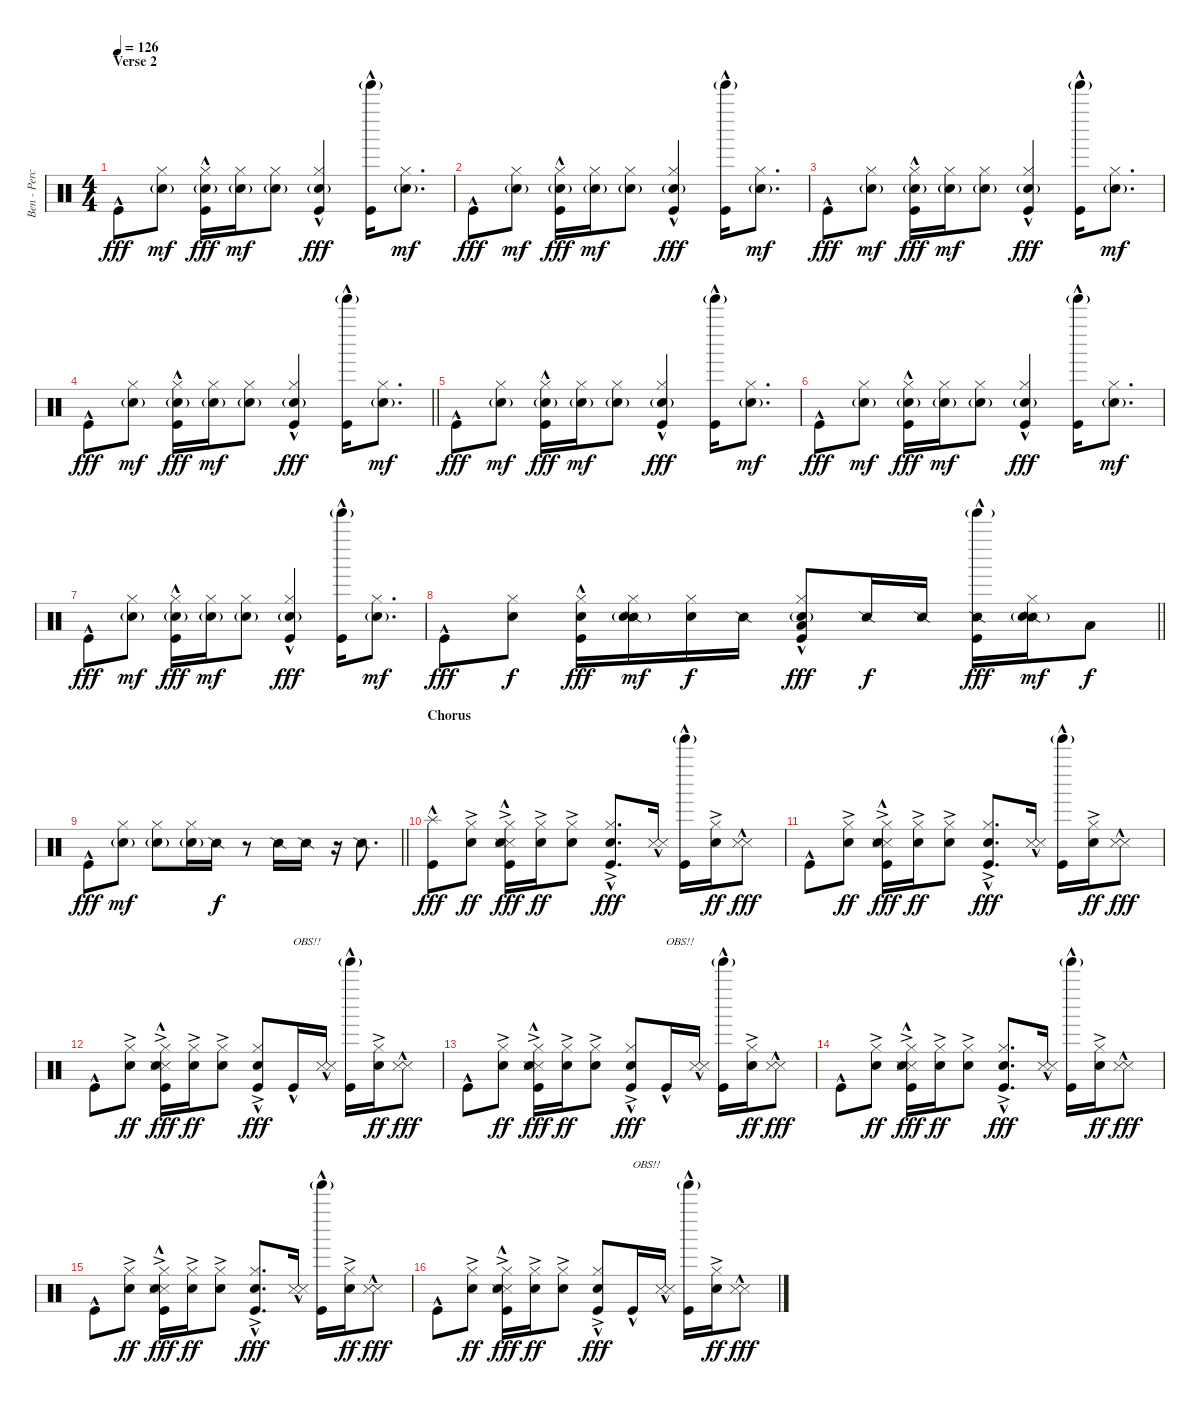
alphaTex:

\track ("Ben - Percussion" "Ben - Perc") {instrument percussion}
\staff {score}
\articulation defaults
\ts (4 4)
\section ("" "Verse 2")
\tempo 126
\clef neutral
\ks c "Kick (hit)"{hac}.8{dy fff}
("Hi-Hat (closed)" "Snare (hit) 2"{g}).8{dy mf} ("Hi-Hat (closed)" "Snare (hit) 2"{g} "Kick (hit)"{hac}).16{dy fff} ("Hi-Hat (closed)" "Snare (hit) 2"{g}).16{dy mf} ("Hi-Hat (closed)" "Snare (hit) 2"{g}).8 ("Hi-Hat (closed)" "Snare (hit) 2"{g} "Kick (hit)"{hac}).4{dy fff} ("Tinkle Bell (hit)"{g} "Kick (hit)"{hac}).16 ("Hi-Hat (closed)" "Snare (hit) 2"{g}).8{d dy mf} |
"Kick (hit)"{hac}.8{dy fff} ("Hi-Hat (closed)" "Snare (hit) 2"{g}).8{dy mf} ("Hi-Hat (closed)" "Snare (hit) 2"{g} "Kick (hit)"{hac}).16{dy fff} ("Hi-Hat (closed)" "Snare (hit) 2"{g}).16{dy mf} ("Hi-Hat (closed)" "Snare (hit) 2"{g}).8 ("Hi-Hat (closed)" "Snare (hit) 2"{g} "Kick (hit)"{hac}).4{dy fff} ("Tinkle Bell (hit)"{g} "Kick (hit)"{hac}).16 ("Hi-Hat (closed)" "Snare (hit) 2"{g}).8{d dy mf} |
"Kick (hit)"{hac}.8{dy fff} ("Hi-Hat (closed)" "Snare (hit) 2"{g}).8{dy mf} ("Hi-Hat (closed)" "Snare (hit) 2"{g} "Kick (hit)"{hac}).16{dy fff} ("Hi-Hat (closed)" "Snare (hit) 2"{g}).16{dy mf} ("Hi-Hat (closed)" "Snare (hit) 2"{g}).8 ("Hi-Hat (closed)" "Snare (hit) 2"{g} "Kick (hit)"{hac}).4{dy fff} ("Tinkle Bell (hit)"{g} "Kick (hit)"{hac}).16 ("Hi-Hat (closed)" "Snare (hit) 2"{g}).8{d dy mf} |
\barLineRight lightlight "Kick (hit)"{hac}.8{dy fff}
("Hi-Hat (closed)" "Snare (hit) 2"{g}).8{dy mf} ("Hi-Hat (closed)" "Snare (hit) 2"{g} "Kick (hit)"{hac}).16{dy fff} ("Hi-Hat (closed)" "Snare (hit) 2"{g}).16{dy mf} ("Hi-Hat (closed)" "Snare (hit) 2"{g}).8 ("Hi-Hat (closed)" "Snare (hit) 2"{g} "Kick (hit)"{hac}).4{dy fff} ("Tinkle Bell (hit)"{g} "Kick (hit)"{hac}).16 ("Hi-Hat (closed)" "Snare (hit) 2"{g}).8{d dy mf} |
"Kick (hit)"{hac}.8{dy fff} ("Hi-Hat (closed)" "Snare (hit) 2"{g}).8{dy mf} ("Hi-Hat (closed)" "Snare (hit) 2"{g} "Kick (hit)"{hac}).16{dy fff} ("Hi-Hat (closed)" "Snare (hit) 2"{g}).16{dy mf} ("Hi-Hat (closed)" "Snare (hit) 2"{g}).8 ("Hi-Hat (closed)" "Snare (hit) 2"{g} "Kick (hit)"{hac}).4{dy fff} ("Tinkle Bell (hit)"{g} "Kick (hit)"{hac}).16 ("Hi-Hat (closed)" "Snare (hit) 2"{g}).8{d dy mf} |
"Kick (hit)"{hac}.8{dy fff} ("Hi-Hat (closed)" "Snare (hit) 2"{g}).8{dy mf} ("Hi-Hat (closed)" "Snare (hit) 2"{g} "Kick (hit)"{hac}).16{dy fff} ("Hi-Hat (closed)" "Snare (hit) 2"{g}).16{dy mf} ("Hi-Hat (closed)" "Snare (hit) 2"{g}).8 ("Hi-Hat (closed)" "Snare (hit) 2"{g} "Kick (hit)"{hac}).4{dy fff} ("Tinkle Bell (hit)"{g} "Kick (hit)"{hac}).16 ("Hi-Hat (closed)" "Snare (hit) 2"{g}).8{d dy mf} |
"Kick (hit)"{hac}.8{dy fff} ("Hi-Hat (closed)" "Snare (hit) 2"{g}).8{dy mf} ("Hi-Hat (closed)" "Snare (hit) 2"{g} "Kick (hit)"{hac}).16{dy fff} ("Hi-Hat (closed)" "Snare (hit) 2"{g}).16{dy mf} ("Hi-Hat (closed)" "Snare (hit) 2"{g}).8 ("Hi-Hat (closed)" "Snare (hit) 2"{g} "Kick (hit)"{hac}).4{dy fff} ("Tinkle Bell (hit)"{g} "Kick (hit)"{hac}).16 ("Hi-Hat (closed)" "Snare (hit) 2"{g}).8{d dy mf} |
\barLineRight lightlight "Kick (hit)"{hac}.8{dy fff}
("Hi-Hat (closed)" "Snare (hit) 2").8{dy f} ("Hi-Hat (closed)" "Snare (hit) 2" "Kick (hit)"{hac}).16{dy fff} ("Hi-Hat (closed)" "Snare (side stick) 2" "Snare (hit) 2"{g}).16{dy mf} ("Hi-Hat (closed)" "Snare (hit) 2").16{dy f} "Snare (side stick) 2".16 ("Hi-Hat (closed)" "Low Tom (hit)" "Snare (hit) 2"{g} "Kick (hit)"{hac}).8{dy fff} "Snare (side stick) 2".16{dy f} "Snare (side stick) 2".16 ("Tinkle Bell (hit)"{g} "Snare (side stick) 2" "Kick (hit)"{hac}).16{dy fff} ("Hi-Hat (closed)" "Snare (side stick) 2" "Snare (hit) 2"{g}).16{dy mf} "Low Tom (hit)".8{dy f} |
\barLineRight lightlight "Kick (hit)"{hac}.8{dy fff}
("Hi-Hat (closed)" "Snare (hit) 2"{g}).8{dy mf} ("Hi-Hat (closed)" "Snare (hit) 2"{g}).8 ("Hi-Hat (closed)" "Snare (hit) 2"{g}).16 "Snare (side stick) 2".16{dy f} r.8 "Snare (side stick) 2".16 "Snare (side stick) 2".16 r.16 "Snare (side stick) 2".8{d} |
\section ("" "Chorus")
("Splash (hit)" "Kick (hit)"{hac}).8{dy fff} ("Hi-Hat (closed)"{ac} "Snare (hit) 2").8{dy ff} ("Hi-Hat (closed)"{ac} "Metronome (hit)"{hac} "Snare (side stick) 3"{hac} "Snare (hit) 2" "Kick (hit)"{hac}).16{dy fff} ("Hi-Hat (closed)"{ac} "Snare (hit) 2").16{dy ff} ("Hi-Hat (closed)"{ac} "Snare (hit) 2").8 ("Hi-Hat (closed)"{ac} "Snare (hit) 2" "Kick (hit)"{hac}).8{d dy fff} ("Metronome (hit)"{hac} "Snare (side stick) 3"{hac}).16 ("Tinkle Bell (hit)"{g} "Kick (hit)"{hac}).16 ("Hi-Hat (closed)"{ac} "Snare (hit) 2").16{dy ff} ("Metronome (hit)"{hac} "Snare (side stick) 3"{hac}).8{dy fff} |
"Kick (hit)"{hac}.8 ("Hi-Hat (closed)"{ac} "Snare (hit) 2").8{dy ff} ("Hi-Hat (closed)"{ac} "Metronome (hit)"{hac} "Snare (side stick) 3"{hac} "Snare (hit) 2" "Kick (hit)"{hac}).16{dy fff} ("Hi-Hat (closed)"{ac} "Snare (hit) 2").16{dy ff} ("Hi-Hat (closed)"{ac} "Snare (hit) 2").8 ("Hi-Hat (closed)"{ac} "Snare (hit) 2" "Kick (hit)"{hac}).8{d dy fff} ("Metronome (hit)"{hac} "Snare (side stick) 3"{hac}).16 ("Tinkle Bell (hit)"{g} "Kick (hit)"{hac}).16 ("Hi-Hat (closed)"{ac} "Snare (hit) 2").16{dy ff} ("Metronome (hit)"{hac} "Snare (side stick) 3"{hac}).8{dy fff} |
"Kick (hit)"{hac}.8 ("Hi-Hat (closed)"{ac} "Snare (hit) 2").8{dy ff} ("Hi-Hat (closed)"{ac} "Metronome (hit)"{hac} "Snare (side stick) 3"{hac} "Snare (hit) 2" "Kick (hit)"{hac}).16{dy fff} ("Hi-Hat (closed)"{ac} "Snare (hit) 2").16{dy ff} ("Hi-Hat (closed)"{ac} "Snare (hit) 2").8 ("Hi-Hat (closed)"{ac} "Snare (hit) 2" "Kick (hit)"{hac}).8{dy fff} "Kick (hit)"{hac}.16{txt "OBS!!"} ("Metronome (hit)"{hac} "Snare (side stick) 3"{hac}).16 ("Tinkle Bell (hit)"{g} "Kick (hit)"{hac}).16 ("Hi-Hat (closed)"{ac} "Snare (hit) 2").16{dy ff} ("Metronome (hit)"{hac} "Snare (side stick) 3"{hac}).8{dy fff} |
"Kick (hit)"{hac}.8 ("Hi-Hat (closed)"{ac} "Snare (hit) 2").8{dy ff} ("Hi-Hat (closed)"{ac} "Metronome (hit)"{hac} "Snare (side stick) 3"{hac} "Snare (hit) 2" "Kick (hit)"{hac}).16{dy fff} ("Hi-Hat (closed)"{ac} "Snare (hit) 2").16{dy ff} ("Hi-Hat (closed)"{ac} "Snare (hit) 2").8 ("Hi-Hat (closed)"{ac} "Snare (hit) 2" "Kick (hit)"{hac}).8{dy fff} "Kick (hit)"{hac}.16{txt "OBS!!"} ("Metronome (hit)"{hac} "Snare (side stick) 3"{hac}).16 ("Tinkle Bell (hit)"{g} "Kick (hit)"{hac}).16 ("Hi-Hat (closed)"{ac} "Snare (hit) 2").16{dy ff} ("Metronome (hit)"{hac} "Snare (side stick) 3"{hac}).8{dy fff} |
"Kick (hit)"{hac}.8 ("Hi-Hat (closed)"{ac} "Snare (hit) 2").8{dy ff} ("Hi-Hat (closed)"{ac} "Metronome (hit)"{hac} "Snare (side stick) 3"{hac} "Snare (hit) 2" "Kick (hit)"{hac}).16{dy fff} ("Hi-Hat (closed)"{ac} "Snare (hit) 2").16{dy ff} ("Hi-Hat (closed)"{ac} "Snare (hit) 2").8 ("Hi-Hat (closed)"{ac} "Snare (hit) 2" "Kick (hit)"{hac}).8{d dy fff} ("Metronome (hit)"{hac} "Snare (side stick) 3"{hac}).16 ("Tinkle Bell (hit)"{g} "Kick (hit)"{hac}).16 ("Hi-Hat (closed)"{ac} "Snare (hit) 2").16{dy ff} ("Metronome (hit)"{hac} "Snare (side stick) 3"{hac}).8{dy fff} |
"Kick (hit)"{hac}.8 ("Hi-Hat (closed)"{ac} "Snare (hit) 2").8{dy ff} ("Hi-Hat (closed)"{ac} "Metronome (hit)"{hac} "Snare (side stick) 3"{hac} "Snare (hit) 2" "Kick (hit)"{hac}).16{dy fff} ("Hi-Hat (closed)"{ac} "Snare (hit) 2").16{dy ff} ("Hi-Hat (closed)"{ac} "Snare (hit) 2").8 ("Hi-Hat (closed)"{ac} "Snare (hit) 2" "Kick (hit)"{hac}).8{d dy fff} ("Metronome (hit)"{hac} "Snare (side stick) 3"{hac}).16 ("Tinkle Bell (hit)"{g} "Kick (hit)"{hac}).16 ("Hi-Hat (closed)"{ac} "Snare (hit) 2").16{dy ff} ("Metronome (hit)"{hac} "Snare (side stick) 3"{hac}).8{dy fff} |
"Kick (hit)"{hac}.8 ("Hi-Hat (closed)"{ac} "Snare (hit) 2").8{dy ff} ("Hi-Hat (closed)"{ac} "Metronome (hit)"{hac} "Snare (side stick) 3"{hac} "Snare (hit) 2" "Kick (hit)"{hac}).16{dy fff} ("Hi-Hat (closed)"{ac} "Snare (hit) 2").16{dy ff} ("Hi-Hat (closed)"{ac} "Snare (hit) 2").8 ("Hi-Hat (closed)"{ac} "Snare (hit) 2" "Kick (hit)"{hac}).8{dy fff} "Kick (hit)"{hac}.16{txt "OBS!!"} ("Metronome (hit)"{hac} "Snare (side stick) 3"{hac}).16 ("Tinkle Bell (hit)"{g} "Kick (hit)"{hac}).16 ("Hi-Hat (closed)"{ac} "Snare (hit) 2").16{dy ff} ("Metronome (hit)"{hac} "Snare (side stick) 3"{hac}).8{dy fff}
